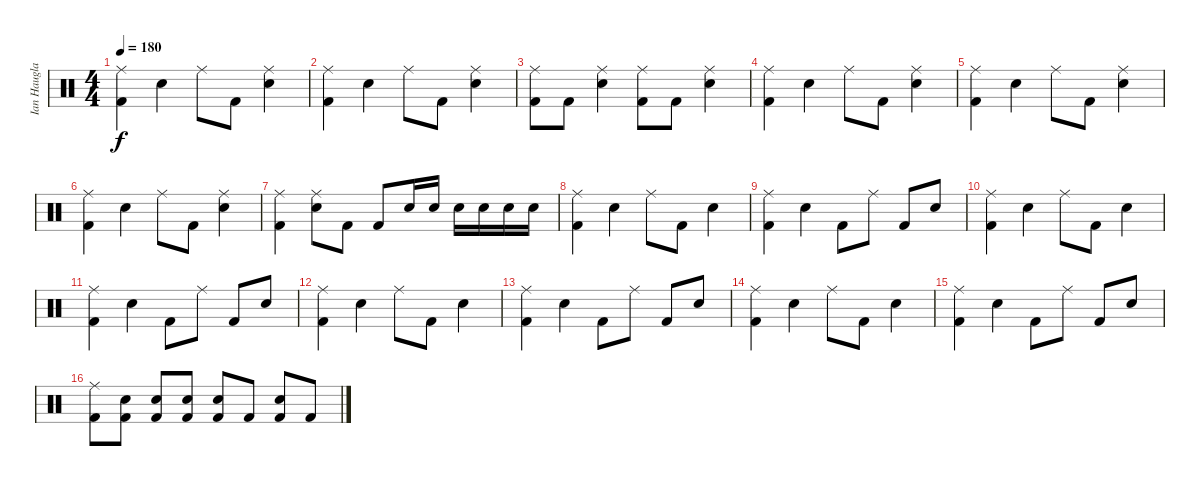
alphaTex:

\track ("Ian Haugland drums" "Ian Haugla") {instrument percussion}
\staff {score}
\articulation defaults
\ts (4 4)
\tempo 180
\clef neutral
\ks c
("Ride (middle)" "Kick (hit) 2").4{dy f} "Snare (hit) 2".4 "Ride (middle)".8 "Kick (hit) 2".8 ("Ride (middle)" "Snare (hit) 2").4 |
("Ride (middle)" "Kick (hit) 2").4 "Snare (hit) 2".4 "Ride (middle)".8 "Kick (hit) 2".8 ("Ride (middle)" "Snare (hit) 2").4 |
("Ride (middle)" "Kick (hit) 2").8 "Kick (hit) 2".8 ("Ride (middle)" "Snare (hit) 2").4 ("Ride (middle)" "Kick (hit) 2").8 "Kick (hit) 2".8 ("Ride (middle)" "Snare (hit) 2").4 |
("Ride (middle)" "Kick (hit) 2").4 "Snare (hit) 2".4 "Ride (middle)".8 "Kick (hit) 2".8 ("Ride (middle)" "Snare (hit) 2").4 |
("Ride (middle)" "Kick (hit) 2").4 "Snare (hit) 2".4 "Ride (middle)".8 "Kick (hit) 2".8 ("Ride (middle)" "Snare (hit) 2").4 |
("Ride (middle)" "Kick (hit) 2").4 "Snare (hit) 2".4 "Ride (middle)".8 "Kick (hit) 2".8 ("Ride (middle)" "Snare (hit) 2").4 |
("Ride (middle)" "Kick (hit) 2").4 ("Ride (middle)" "Snare (hit) 2").8 "Kick (hit) 2".8 "Kick (hit) 2".8 "Snare (hit) 2".16 "Snare (hit) 2".16 "Snare (hit) 2".16 "Snare (hit) 2".16 "Snare (hit) 2".16 "Snare (hit) 2".16 |
("Ride (middle)" "Kick (hit) 2").4 "Snare (hit) 2".4 "Ride (middle)".8 "Kick (hit) 2".8 "Snare (hit) 2".4 |
("Ride (middle)" "Kick (hit) 2").4 "Snare (hit) 2".4 "Kick (hit) 2".8 "Ride (middle)".8 "Kick (hit) 2".8 "Snare (hit) 2".8 |
("Ride (middle)" "Kick (hit) 2").4 "Snare (hit) 2".4 "Ride (middle)".8 "Kick (hit) 2".8 "Snare (hit) 2".4 |
("Ride (middle)" "Kick (hit) 2").4 "Snare (hit) 2".4 "Kick (hit) 2".8 "Ride (middle)".8 "Kick (hit) 2".8 "Snare (hit) 2".8 |
("Ride (middle)" "Kick (hit) 2").4 "Snare (hit) 2".4 "Ride (middle)".8 "Kick (hit) 2".8 "Snare (hit) 2".4 |
("Ride (middle)" "Kick (hit) 2").4 "Snare (hit) 2".4 "Kick (hit) 2".8 "Ride (middle)".8 "Kick (hit) 2".8 "Snare (hit) 2".8 |
("Ride (middle)" "Kick (hit) 2").4 "Snare (hit) 2".4 "Ride (middle)".8 "Kick (hit) 2".8 "Snare (hit) 2".4 |
("Ride (middle)" "Kick (hit) 2").4 "Snare (hit) 2".4 "Kick (hit) 2".8 "Ride (middle)".8 "Kick (hit) 2".8 "Snare (hit) 2".8 |
("Ride (middle)" "Kick (hit) 2").8 ("Snare (hit) 2" "Kick (hit) 2").8 ("Snare (hit) 2" "Kick (hit) 2").8 ("Snare (hit) 2" "Kick (hit) 2").8 ("Snare (hit) 2" "Kick (hit) 2").8 "Kick (hit) 2".8 ("Snare (hit) 2" "Kick (hit) 2").8 "Kick (hit) 2".8
